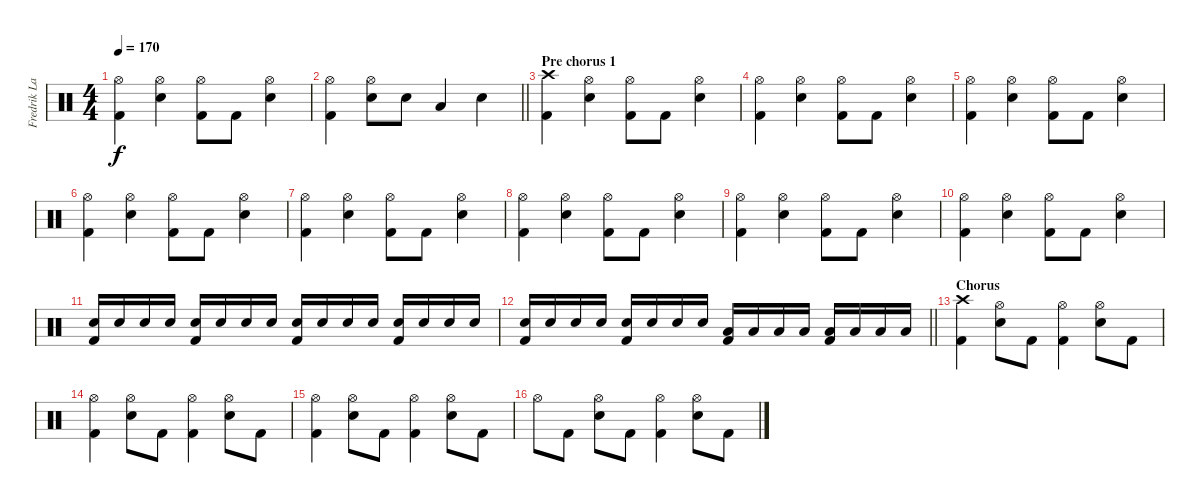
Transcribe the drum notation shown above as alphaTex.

\track ("Fredrik Larzon" "Fredrik La") {instrument percussion}
\staff {score}
\articulation defaults
\ts (4 4)
\tempo 170
\clef neutral
\ks c
("Hi-Hat (open)" "Kick (hit) 2").4{dy f} ("Hi-Hat (open)" "Electric Snare (hit)").4 ("Hi-Hat (open)" "Kick (hit) 2").8 "Kick (hit) 2".8 ("Hi-Hat (open)" "Electric Snare (hit)").4 |
\barLineRight lightlight
("Hi-Hat (open)" "Kick (hit) 2").4 ("Hi-Hat (open)" "Electric Snare (hit)").8 "Electric Snare (hit)".8 "Low Tom (hit)".4 "Electric Snare (hit)".4 |
\section ("" "Pre chorus 1")
("Crash high (hit)" "Kick (hit) 2").4 ("Hi-Hat (open)" "Electric Snare (hit)").4 ("Hi-Hat (open)" "Kick (hit) 2").8 "Kick (hit) 2".8 ("Hi-Hat (open)" "Electric Snare (hit)").4 |
("Hi-Hat (open)" "Kick (hit) 2").4 ("Hi-Hat (open)" "Electric Snare (hit)").4 ("Hi-Hat (open)" "Kick (hit) 2").8 "Kick (hit) 2".8 ("Hi-Hat (open)" "Electric Snare (hit)").4 |
("Hi-Hat (open)" "Kick (hit) 2").4 ("Hi-Hat (open)" "Electric Snare (hit)").4 ("Hi-Hat (open)" "Kick (hit) 2").8 "Kick (hit) 2".8 ("Hi-Hat (open)" "Electric Snare (hit)").4 |
("Hi-Hat (open)" "Kick (hit) 2").4 ("Hi-Hat (open)" "Electric Snare (hit)").4 ("Hi-Hat (open)" "Kick (hit) 2").8 "Kick (hit) 2".8 ("Hi-Hat (open)" "Electric Snare (hit)").4 |
("Hi-Hat (open)" "Kick (hit) 2").4 ("Hi-Hat (open)" "Electric Snare (hit)").4 ("Hi-Hat (open)" "Kick (hit) 2").8 "Kick (hit) 2".8 ("Hi-Hat (open)" "Electric Snare (hit)").4 |
("Hi-Hat (open)" "Kick (hit) 2").4 ("Hi-Hat (open)" "Electric Snare (hit)").4 ("Hi-Hat (open)" "Kick (hit) 2").8 "Kick (hit) 2".8 ("Hi-Hat (open)" "Electric Snare (hit)").4 |
("Hi-Hat (open)" "Kick (hit) 2").4 ("Hi-Hat (open)" "Electric Snare (hit)").4 ("Hi-Hat (open)" "Kick (hit) 2").8 "Kick (hit) 2".8 ("Hi-Hat (open)" "Electric Snare (hit)").4 |
("Hi-Hat (open)" "Kick (hit) 2").4 ("Hi-Hat (open)" "Electric Snare (hit)").4 ("Hi-Hat (open)" "Kick (hit) 2").8 "Kick (hit) 2".8 ("Hi-Hat (open)" "Electric Snare (hit)").4 |
("Electric Snare (hit)" "Kick (hit) 2").16 "Electric Snare (hit)".16 "Electric Snare (hit)".16 "Electric Snare (hit)".16 ("Electric Snare (hit)" "Kick (hit) 2").16 "Electric Snare (hit)".16 "Electric Snare (hit)".16 "Electric Snare (hit)".16 ("Electric Snare (hit)" "Kick (hit) 2").16 "Electric Snare (hit)".16 "Electric Snare (hit)".16 "Electric Snare (hit)".16 ("Electric Snare (hit)" "Kick (hit) 2").16 "Electric Snare (hit)".16 "Electric Snare (hit)".16 "Electric Snare (hit)".16 |
\barLineRight lightlight
("Electric Snare (hit)" "Kick (hit) 2").16 "Electric Snare (hit)".16 "Electric Snare (hit)".16 "Electric Snare (hit)".16 ("Electric Snare (hit)" "Kick (hit) 2").16 "Electric Snare (hit)".16 "Electric Snare (hit)".16 "Electric Snare (hit)".16 ("Kick (hit) 2" "Low Tom (hit)").16 "Low Tom (hit)".16 "Low Tom (hit)".16 "Low Tom (hit)".16 ("Kick (hit) 2" "Low Floor Tom (hit)").16 "Low Floor Tom (hit)".16 "Low Floor Tom (hit)".16 "Low Floor Tom (hit)".16 |
\section ("" "Chorus")
("Crash high (hit)" "Kick (hit) 2").4 ("Hi-Hat (open)" "Electric Snare (hit)").8 "Kick (hit) 2".8 ("Hi-Hat (open)" "Kick (hit) 2").4 ("Hi-Hat (open)" "Electric Snare (hit)").8 "Kick (hit) 2".8 |
("Hi-Hat (open)" "Kick (hit) 2").4 ("Hi-Hat (open)" "Electric Snare (hit)").8 "Kick (hit) 2".8 ("Hi-Hat (open)" "Kick (hit) 2").4 ("Hi-Hat (open)" "Electric Snare (hit)").8 "Kick (hit) 2".8 |
("Hi-Hat (open)" "Kick (hit) 2").4 ("Hi-Hat (open)" "Electric Snare (hit)").8 "Kick (hit) 2".8 ("Hi-Hat (open)" "Kick (hit) 2").4 ("Hi-Hat (open)" "Electric Snare (hit)").8 "Kick (hit) 2".8 |
"Hi-Hat (open)".8 "Kick (hit) 2".8 ("Hi-Hat (open)" "Electric Snare (hit)").8 "Kick (hit) 2".8 ("Hi-Hat (open)" "Kick (hit) 2").4 ("Hi-Hat (open)" "Electric Snare (hit)").8 "Kick (hit) 2".8
